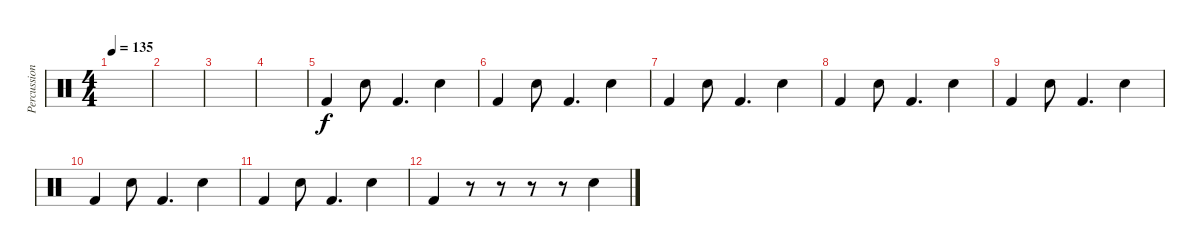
\track ("Percussion" "Percussion") {instrument percussion}
\staff {score}
\articulation defaults
\ts (4 4)
\tempo 135
\clef neutral
\ks c
|
|
|
|
"Kick (hit) 2".4 "Snare (hit) 2".8 "Kick (hit) 2".4{d} "Snare (hit) 2".4 |
"Kick (hit) 2".4 "Snare (hit) 2".8 "Kick (hit) 2".4{d} "Snare (hit) 2".4 |
"Kick (hit) 2".4 "Snare (hit) 2".8 "Kick (hit) 2".4{d} "Snare (hit) 2".4 |
"Kick (hit) 2".4 "Snare (hit) 2".8 "Kick (hit) 2".4{d} "Snare (hit) 2".4 |
"Kick (hit) 2".4 "Snare (hit) 2".8 "Kick (hit) 2".4{d} "Snare (hit) 2".4 |
"Kick (hit) 2".4 "Snare (hit) 2".8 "Kick (hit) 2".4{d} "Snare (hit) 2".4 |
"Kick (hit) 2".4 "Snare (hit) 2".8 "Kick (hit) 2".4{d} "Snare (hit) 2".4 |
"Kick (hit) 2".4 r.8 r.8 r.8 r.8 "Snare (hit) 2".4
